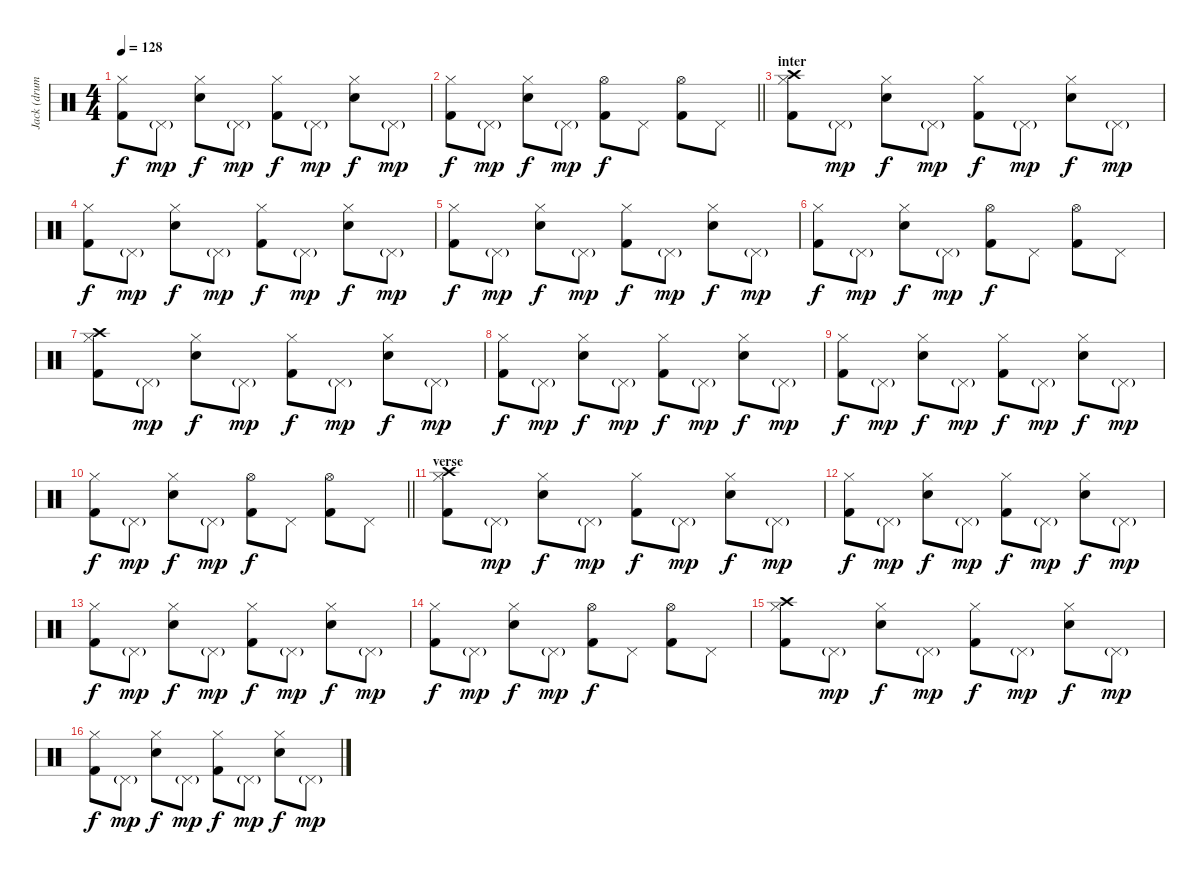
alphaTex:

\track ("Jack (drums)" "Jack (drum") {instrument percussion}
\staff {score}
\articulation defaults
\ts (4 4)
\tempo 128
\clef neutral
\ks c
("Hi-Hat (closed)" "Kick (hit) 2").8{dy f} "Pedal Hi-Hat (hit)"{g}.8{dy mp} ("Hi-Hat (closed)" "Snare (hit) 2").8{dy f} "Pedal Hi-Hat (hit)"{g}.8{dy mp} ("Hi-Hat (closed)" "Kick (hit) 2").8{dy f} "Pedal Hi-Hat (hit)"{g}.8{dy mp} ("Hi-Hat (closed)" "Snare (hit) 2").8{dy f} "Pedal Hi-Hat (hit)"{g}.8{dy mp} |
\barLineRight lightlight
("Hi-Hat (closed)" "Kick (hit) 2").8{dy f} "Pedal Hi-Hat (hit)"{g}.8{dy mp} ("Hi-Hat (closed)" "Snare (hit) 2").8{dy f} "Pedal Hi-Hat (hit)"{g}.8{dy mp} ("Hi-Hat (open)" "Kick (hit) 2").8{dy f} "Pedal Hi-Hat (hit)".8 ("Hi-Hat (open)" "Kick (hit) 2").8 "Pedal Hi-Hat (hit)".8 |
\section ("" "inter")
("Hi-Hat (closed)" "Crash high (hit)" "Kick (hit) 2").8 "Pedal Hi-Hat (hit)"{g}.8{dy mp} ("Hi-Hat (closed)" "Snare (hit) 2").8{dy f} "Pedal Hi-Hat (hit)"{g}.8{dy mp} ("Hi-Hat (closed)" "Kick (hit) 2").8{dy f} "Pedal Hi-Hat (hit)"{g}.8{dy mp} ("Hi-Hat (closed)" "Snare (hit) 2").8{dy f} "Pedal Hi-Hat (hit)"{g}.8{dy mp} |
("Hi-Hat (closed)" "Kick (hit) 2").8{dy f} "Pedal Hi-Hat (hit)"{g}.8{dy mp} ("Hi-Hat (closed)" "Snare (hit) 2").8{dy f} "Pedal Hi-Hat (hit)"{g}.8{dy mp} ("Hi-Hat (closed)" "Kick (hit) 2").8{dy f} "Pedal Hi-Hat (hit)"{g}.8{dy mp} ("Hi-Hat (closed)" "Snare (hit) 2").8{dy f} "Pedal Hi-Hat (hit)"{g}.8{dy mp} |
("Hi-Hat (closed)" "Kick (hit) 2").8{dy f} "Pedal Hi-Hat (hit)"{g}.8{dy mp} ("Hi-Hat (closed)" "Snare (hit) 2").8{dy f} "Pedal Hi-Hat (hit)"{g}.8{dy mp} ("Hi-Hat (closed)" "Kick (hit) 2").8{dy f} "Pedal Hi-Hat (hit)"{g}.8{dy mp} ("Hi-Hat (closed)" "Snare (hit) 2").8{dy f} "Pedal Hi-Hat (hit)"{g}.8{dy mp} |
("Hi-Hat (closed)" "Kick (hit) 2").8{dy f} "Pedal Hi-Hat (hit)"{g}.8{dy mp} ("Hi-Hat (closed)" "Snare (hit) 2").8{dy f} "Pedal Hi-Hat (hit)"{g}.8{dy mp} ("Hi-Hat (open)" "Kick (hit) 2").8{dy f} "Pedal Hi-Hat (hit)".8 ("Hi-Hat (open)" "Kick (hit) 2").8 "Pedal Hi-Hat (hit)".8 |
("Hi-Hat (closed)" "Crash high (hit)" "Kick (hit) 2").8 "Pedal Hi-Hat (hit)"{g}.8{dy mp} ("Hi-Hat (closed)" "Snare (hit) 2").8{dy f} "Pedal Hi-Hat (hit)"{g}.8{dy mp} ("Hi-Hat (closed)" "Kick (hit) 2").8{dy f} "Pedal Hi-Hat (hit)"{g}.8{dy mp} ("Hi-Hat (closed)" "Snare (hit) 2").8{dy f} "Pedal Hi-Hat (hit)"{g}.8{dy mp} |
("Hi-Hat (closed)" "Kick (hit) 2").8{dy f} "Pedal Hi-Hat (hit)"{g}.8{dy mp} ("Hi-Hat (closed)" "Snare (hit) 2").8{dy f} "Pedal Hi-Hat (hit)"{g}.8{dy mp} ("Hi-Hat (closed)" "Kick (hit) 2").8{dy f} "Pedal Hi-Hat (hit)"{g}.8{dy mp} ("Hi-Hat (closed)" "Snare (hit) 2").8{dy f} "Pedal Hi-Hat (hit)"{g}.8{dy mp} |
("Hi-Hat (closed)" "Kick (hit) 2").8{dy f} "Pedal Hi-Hat (hit)"{g}.8{dy mp} ("Hi-Hat (closed)" "Snare (hit) 2").8{dy f} "Pedal Hi-Hat (hit)"{g}.8{dy mp} ("Hi-Hat (closed)" "Kick (hit) 2").8{dy f} "Pedal Hi-Hat (hit)"{g}.8{dy mp} ("Hi-Hat (closed)" "Snare (hit) 2").8{dy f} "Pedal Hi-Hat (hit)"{g}.8{dy mp} |
\barLineRight lightlight
("Hi-Hat (closed)" "Kick (hit) 2").8{dy f} "Pedal Hi-Hat (hit)"{g}.8{dy mp} ("Hi-Hat (closed)" "Snare (hit) 2").8{dy f} "Pedal Hi-Hat (hit)"{g}.8{dy mp} ("Hi-Hat (open)" "Kick (hit) 2").8{dy f} "Pedal Hi-Hat (hit)".8 ("Hi-Hat (open)" "Kick (hit) 2").8 "Pedal Hi-Hat (hit)".8 |
\section ("" "verse")
("Hi-Hat (closed)" "Crash high (hit)" "Kick (hit) 2").8 "Pedal Hi-Hat (hit)"{g}.8{dy mp} ("Hi-Hat (closed)" "Snare (hit) 2").8{dy f} "Pedal Hi-Hat (hit)"{g}.8{dy mp} ("Hi-Hat (closed)" "Kick (hit) 2").8{dy f} "Pedal Hi-Hat (hit)"{g}.8{dy mp} ("Hi-Hat (closed)" "Snare (hit) 2").8{dy f} "Pedal Hi-Hat (hit)"{g}.8{dy mp} |
("Hi-Hat (closed)" "Kick (hit) 2").8{dy f} "Pedal Hi-Hat (hit)"{g}.8{dy mp} ("Hi-Hat (closed)" "Snare (hit) 2").8{dy f} "Pedal Hi-Hat (hit)"{g}.8{dy mp} ("Hi-Hat (closed)" "Kick (hit) 2").8{dy f} "Pedal Hi-Hat (hit)"{g}.8{dy mp} ("Hi-Hat (closed)" "Snare (hit) 2").8{dy f} "Pedal Hi-Hat (hit)"{g}.8{dy mp} |
("Hi-Hat (closed)" "Kick (hit) 2").8{dy f} "Pedal Hi-Hat (hit)"{g}.8{dy mp} ("Hi-Hat (closed)" "Snare (hit) 2").8{dy f} "Pedal Hi-Hat (hit)"{g}.8{dy mp} ("Hi-Hat (closed)" "Kick (hit) 2").8{dy f} "Pedal Hi-Hat (hit)"{g}.8{dy mp} ("Hi-Hat (closed)" "Snare (hit) 2").8{dy f} "Pedal Hi-Hat (hit)"{g}.8{dy mp} |
("Hi-Hat (closed)" "Kick (hit) 2").8{dy f} "Pedal Hi-Hat (hit)"{g}.8{dy mp} ("Hi-Hat (closed)" "Snare (hit) 2").8{dy f} "Pedal Hi-Hat (hit)"{g}.8{dy mp} ("Hi-Hat (open)" "Kick (hit) 2").8{dy f} "Pedal Hi-Hat (hit)".8 ("Hi-Hat (open)" "Kick (hit) 2").8 "Pedal Hi-Hat (hit)".8 |
("Hi-Hat (closed)" "Crash high (hit)" "Kick (hit) 2").8 "Pedal Hi-Hat (hit)"{g}.8{dy mp} ("Hi-Hat (closed)" "Snare (hit) 2").8{dy f} "Pedal Hi-Hat (hit)"{g}.8{dy mp} ("Hi-Hat (closed)" "Kick (hit) 2").8{dy f} "Pedal Hi-Hat (hit)"{g}.8{dy mp} ("Hi-Hat (closed)" "Snare (hit) 2").8{dy f} "Pedal Hi-Hat (hit)"{g}.8{dy mp} |
("Hi-Hat (closed)" "Kick (hit) 2").8{dy f} "Pedal Hi-Hat (hit)"{g}.8{dy mp} ("Hi-Hat (closed)" "Snare (hit) 2").8{dy f} "Pedal Hi-Hat (hit)"{g}.8{dy mp} ("Hi-Hat (closed)" "Kick (hit) 2").8{dy f} "Pedal Hi-Hat (hit)"{g}.8{dy mp} ("Hi-Hat (closed)" "Snare (hit) 2").8{dy f} "Pedal Hi-Hat (hit)"{g}.8{dy mp}
